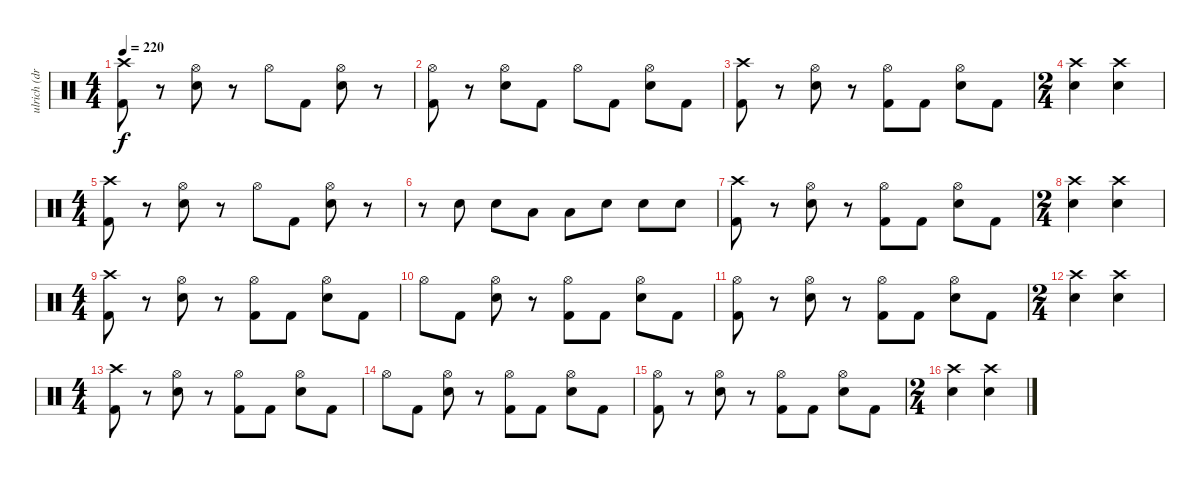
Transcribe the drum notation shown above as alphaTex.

\track ("ulrich (drums)" "ulrich (dr") {instrument percussion}
\staff {score}
\articulation defaults
\ts (4 4)
\tempo 220
\clef neutral
\ks c
("Crash high (hit)" "Kick (hit) 2").8{dy f} r.8 ("Hi-Hat (open)" "Snare (hit) 2").8 r.8 "Hi-Hat (open)".8 "Kick (hit) 2".8 ("Hi-Hat (open)" "Snare (hit) 2").8 r.8 |
("Hi-Hat (open)" "Kick (hit) 2").8 r.8 ("Hi-Hat (open)" "Snare (hit) 2").8 "Kick (hit) 2".8 "Hi-Hat (open)".8 "Kick (hit) 2".8 ("Hi-Hat (open)" "Snare (hit) 2").8 "Kick (hit) 2".8 |
("Crash high (hit)" "Kick (hit) 2").8 r.8 ("Hi-Hat (open)" "Snare (hit) 2").8 r.8 ("Hi-Hat (open)" "Kick (hit) 2").8 "Kick (hit) 2".8 ("Hi-Hat (open)" "Snare (hit) 2").8 "Kick (hit) 2".8 |
\ts (2 4)
("Crash high (hit)" "Snare (hit) 2").4 ("Crash high (hit)" "Snare (hit) 2").4 |
\ts (4 4)
("Crash high (hit)" "Kick (hit) 2").8 r.8 ("Hi-Hat (open)" "Snare (hit) 2").8 r.8 "Hi-Hat (open)".8 "Kick (hit) 2".8 ("Hi-Hat (open)" "Snare (hit) 2").8 r.8 |
r.8 "Snare (hit) 2".8 "Snare (hit) 2".8 "Low Tom (hit)".8 "Low Tom (hit)".8 "Snare (hit) 2".8 "Snare (hit) 2".8 "Snare (hit) 2".8 |
("Crash high (hit)" "Kick (hit) 2").8 r.8 ("Hi-Hat (open)" "Snare (hit) 2").8 r.8 ("Hi-Hat (open)" "Kick (hit) 2").8 "Kick (hit) 2".8 ("Hi-Hat (open)" "Snare (hit) 2").8 "Kick (hit) 2".8 |
\ts (2 4)
("Crash high (hit)" "Snare (hit) 2").4 ("Crash high (hit)" "Snare (hit) 2").4 |
\ts (4 4)
("Crash high (hit)" "Kick (hit) 2").8 r.8 ("Hi-Hat (open)" "Snare (hit) 2").8 r.8 ("Hi-Hat (open)" "Kick (hit) 2").8 "Kick (hit) 2".8 ("Hi-Hat (open)" "Snare (hit) 2").8 "Kick (hit) 2".8 |
"Hi-Hat (open)".8 "Kick (hit) 2".8 ("Hi-Hat (open)" "Snare (hit) 2").8 r.8 ("Hi-Hat (open)" "Kick (hit) 2").8 "Kick (hit) 2".8 ("Hi-Hat (open)" "Snare (hit) 2").8 "Kick (hit) 2".8 |
("Hi-Hat (open)" "Kick (hit) 2").8 r.8 ("Hi-Hat (open)" "Snare (hit) 2").8 r.8 ("Hi-Hat (open)" "Kick (hit) 2").8 "Kick (hit) 2".8 ("Hi-Hat (open)" "Snare (hit) 2").8 "Kick (hit) 2".8 |
\ts (2 4)
("Crash high (hit)" "Snare (hit) 2").4 ("Crash high (hit)" "Snare (hit) 2").4 |
\ts (4 4)
("Crash high (hit)" "Kick (hit) 2").8 r.8 ("Hi-Hat (open)" "Snare (hit) 2").8 r.8 ("Hi-Hat (open)" "Kick (hit) 2").8 "Kick (hit) 2".8 ("Hi-Hat (open)" "Snare (hit) 2").8 "Kick (hit) 2".8 |
"Hi-Hat (open)".8 "Kick (hit) 2".8 ("Hi-Hat (open)" "Snare (hit) 2").8 r.8 ("Hi-Hat (open)" "Kick (hit) 2").8 "Kick (hit) 2".8 ("Hi-Hat (open)" "Snare (hit) 2").8 "Kick (hit) 2".8 |
("Hi-Hat (open)" "Kick (hit) 2").8 r.8 ("Hi-Hat (open)" "Snare (hit) 2").8 r.8 ("Hi-Hat (open)" "Kick (hit) 2").8 "Kick (hit) 2".8 ("Hi-Hat (open)" "Snare (hit) 2").8 "Kick (hit) 2".8 |
\ts (2 4)
("Crash high (hit)" "Snare (hit) 2").4 ("Crash high (hit)" "Snare (hit) 2").4
